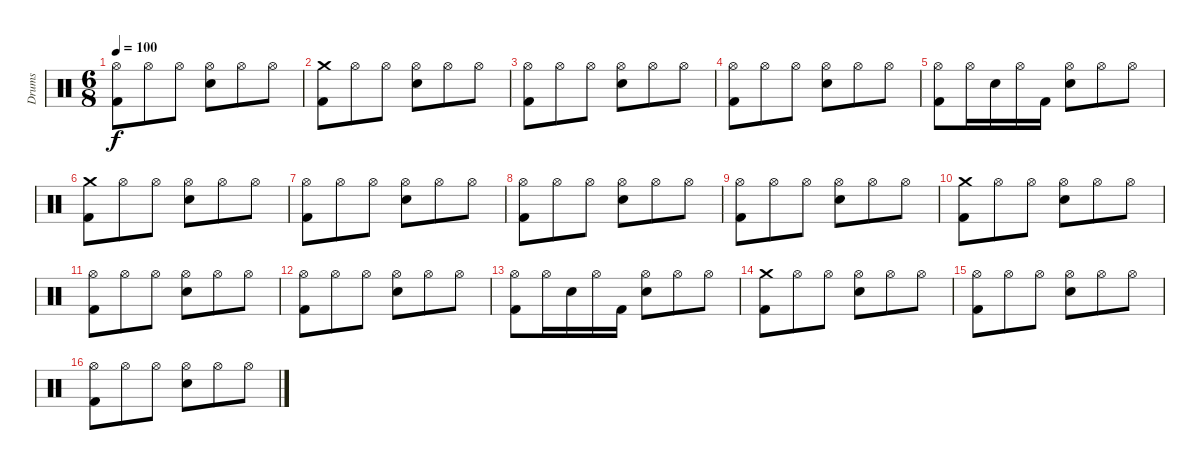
\track ("Drums" "Drums") {instrument percussion}
\staff {score}
\articulation defaults
\ts (6 8)
\tempo 100
\clef neutral
\ks c
("Hi-Hat (open)" "Kick (hit) 2").8{dy f} "Hi-Hat (open)".8 "Hi-Hat (open)".8 ("Hi-Hat (open)" "Snare (hit) 2").8 "Hi-Hat (open)".8 "Hi-Hat (open)".8 |
("Crash medium (hit)" "Kick (hit) 2").8 "Hi-Hat (open)".8 "Hi-Hat (open)".8 ("Hi-Hat (open)" "Snare (hit) 2").8 "Hi-Hat (open)".8 "Hi-Hat (open)".8 |
("Hi-Hat (open)" "Kick (hit) 2").8 "Hi-Hat (open)".8 "Hi-Hat (open)".8 ("Hi-Hat (open)" "Snare (hit) 2").8 "Hi-Hat (open)".8 "Hi-Hat (open)".8 |
("Hi-Hat (open)" "Kick (hit) 2").8 "Hi-Hat (open)".8 "Hi-Hat (open)".8 ("Hi-Hat (open)" "Snare (hit) 2").8 "Hi-Hat (open)".8 "Hi-Hat (open)".8 |
("Hi-Hat (open)" "Kick (hit) 2").8 "Hi-Hat (open)".16 "Snare (hit) 2".16 "Hi-Hat (open)".16 "Kick (hit) 2".16 ("Hi-Hat (open)" "Snare (hit) 2").8 "Hi-Hat (open)".8 "Hi-Hat (open)".8 |
("Crash medium (hit)" "Kick (hit) 2").8 "Hi-Hat (open)".8 "Hi-Hat (open)".8 ("Hi-Hat (open)" "Snare (hit) 2").8 "Hi-Hat (open)".8 "Hi-Hat (open)".8 |
("Hi-Hat (open)" "Kick (hit) 2").8 "Hi-Hat (open)".8 "Hi-Hat (open)".8 ("Hi-Hat (open)" "Snare (hit) 2").8 "Hi-Hat (open)".8 "Hi-Hat (open)".8 |
("Hi-Hat (open)" "Kick (hit) 2").8 "Hi-Hat (open)".8 "Hi-Hat (open)".8 ("Hi-Hat (open)" "Snare (hit) 2").8 "Hi-Hat (open)".8 "Hi-Hat (open)".8 |
("Hi-Hat (open)" "Kick (hit) 2").8 "Hi-Hat (open)".8 "Hi-Hat (open)".8 ("Hi-Hat (open)" "Snare (hit) 2").8 "Hi-Hat (open)".8 "Hi-Hat (open)".8 |
("Crash medium (hit)" "Kick (hit) 2").8 "Hi-Hat (open)".8 "Hi-Hat (open)".8 ("Hi-Hat (open)" "Snare (hit) 2").8 "Hi-Hat (open)".8 "Hi-Hat (open)".8 |
("Hi-Hat (open)" "Kick (hit) 2").8 "Hi-Hat (open)".8 "Hi-Hat (open)".8 ("Hi-Hat (open)" "Snare (hit) 2").8 "Hi-Hat (open)".8 "Hi-Hat (open)".8 |
("Hi-Hat (open)" "Kick (hit) 2").8 "Hi-Hat (open)".8 "Hi-Hat (open)".8 ("Hi-Hat (open)" "Snare (hit) 2").8 "Hi-Hat (open)".8 "Hi-Hat (open)".8 |
("Hi-Hat (open)" "Kick (hit) 2").8 "Hi-Hat (open)".16 "Snare (hit) 2".16 "Hi-Hat (open)".16 "Kick (hit) 2".16 ("Hi-Hat (open)" "Snare (hit) 2").8 "Hi-Hat (open)".8 "Hi-Hat (open)".8 |
("Crash medium (hit)" "Kick (hit) 2").8 "Hi-Hat (open)".8 "Hi-Hat (open)".8 ("Hi-Hat (open)" "Snare (hit) 2").8 "Hi-Hat (open)".8 "Hi-Hat (open)".8 |
("Hi-Hat (open)" "Kick (hit) 2").8 "Hi-Hat (open)".8 "Hi-Hat (open)".8 ("Hi-Hat (open)" "Snare (hit) 2").8 "Hi-Hat (open)".8 "Hi-Hat (open)".8 |
("Hi-Hat (open)" "Kick (hit) 2").8 "Hi-Hat (open)".8 "Hi-Hat (open)".8 ("Hi-Hat (open)" "Snare (hit) 2").8 "Hi-Hat (open)".8 "Hi-Hat (open)".8
